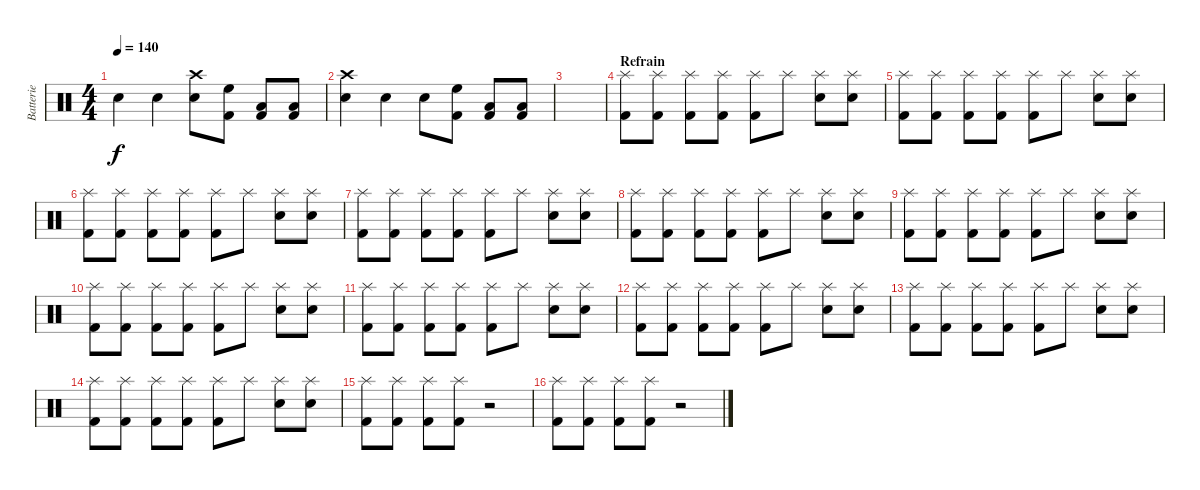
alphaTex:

\track ("Batterie" "Batterie") {instrument percussion}
\staff {score}
\articulation defaults
\ts (4 4)
\tempo 140
\clef neutral
\ks c "Snare (hit) 2".4{dy f} "Snare (hit) 2".4
("Snare (hit) 2" "Crash high (hit)").8 ("High Floor Tom (hit)" "Kick (hit) 2").8 ("Low Floor Tom (hit)" "Kick (hit) 2").8 ("Low Floor Tom (hit)" "Kick (hit) 2").8 |
("Snare (hit) 2" "Crash high (hit)").4 "Snare (hit) 2".4 "Snare (hit) 2".8 ("High Floor Tom (hit)" "Kick (hit) 2").8 ("Low Floor Tom (hit)" "Kick (hit) 2").8 ("Low Floor Tom (hit)" "Kick (hit) 2").8 |
|
\section ("" "Refrain")
("Splash (hit)" "Kick (hit) 2").8{volume 11} ("Splash (hit)" "Kick (hit) 2").8 ("Splash (hit)" "Kick (hit) 2").8 ("Splash (hit)" "Kick (hit) 2").8 ("Splash (hit)" "Kick (hit) 2").8 "Splash (hit)".8 ("Splash (hit)" "Snare (hit) 2").8 ("Splash (hit)" "Snare (hit) 2").8 |
("Splash (hit)" "Kick (hit) 2").8 ("Splash (hit)" "Kick (hit) 2").8 ("Splash (hit)" "Kick (hit) 2").8 ("Splash (hit)" "Kick (hit) 2").8 ("Splash (hit)" "Kick (hit) 2").8 "Splash (hit)".8 ("Splash (hit)" "Snare (hit) 2").8 ("Splash (hit)" "Snare (hit) 2").8 |
("Splash (hit)" "Kick (hit) 2").8 ("Splash (hit)" "Kick (hit) 2").8 ("Splash (hit)" "Kick (hit) 2").8 ("Splash (hit)" "Kick (hit) 2").8 ("Splash (hit)" "Kick (hit) 2").8 "Splash (hit)".8 ("Splash (hit)" "Snare (hit) 2").8 ("Splash (hit)" "Snare (hit) 2").8 |
("Splash (hit)" "Kick (hit) 2").8 ("Splash (hit)" "Kick (hit) 2").8 ("Splash (hit)" "Kick (hit) 2").8 ("Splash (hit)" "Kick (hit) 2").8 ("Splash (hit)" "Kick (hit) 2").8 "Splash (hit)".8 ("Splash (hit)" "Snare (hit) 2").8 ("Splash (hit)" "Snare (hit) 2").8 |
("Splash (hit)" "Kick (hit) 2").8 ("Splash (hit)" "Kick (hit) 2").8 ("Splash (hit)" "Kick (hit) 2").8 ("Splash (hit)" "Kick (hit) 2").8 ("Splash (hit)" "Kick (hit) 2").8 "Splash (hit)".8 ("Splash (hit)" "Snare (hit) 2").8 ("Splash (hit)" "Snare (hit) 2").8 |
("Splash (hit)" "Kick (hit) 2").8 ("Splash (hit)" "Kick (hit) 2").8 ("Splash (hit)" "Kick (hit) 2").8 ("Splash (hit)" "Kick (hit) 2").8 ("Splash (hit)" "Kick (hit) 2").8 "Splash (hit)".8 ("Splash (hit)" "Snare (hit) 2").8 ("Splash (hit)" "Snare (hit) 2").8 |
("Splash (hit)" "Kick (hit) 2").8 ("Splash (hit)" "Kick (hit) 2").8 ("Splash (hit)" "Kick (hit) 2").8 ("Splash (hit)" "Kick (hit) 2").8 ("Splash (hit)" "Kick (hit) 2").8 "Splash (hit)".8 ("Splash (hit)" "Snare (hit) 2").8 ("Splash (hit)" "Snare (hit) 2").8 |
("Splash (hit)" "Kick (hit) 2").8 ("Splash (hit)" "Kick (hit) 2").8 ("Splash (hit)" "Kick (hit) 2").8 ("Splash (hit)" "Kick (hit) 2").8 ("Splash (hit)" "Kick (hit) 2").8 "Splash (hit)".8 ("Splash (hit)" "Snare (hit) 2").8 ("Splash (hit)" "Snare (hit) 2").8 |
("Splash (hit)" "Kick (hit) 2").8 ("Splash (hit)" "Kick (hit) 2").8 ("Splash (hit)" "Kick (hit) 2").8 ("Splash (hit)" "Kick (hit) 2").8 ("Splash (hit)" "Kick (hit) 2").8 "Splash (hit)".8 ("Splash (hit)" "Snare (hit) 2").8 ("Splash (hit)" "Snare (hit) 2").8 |
("Splash (hit)" "Kick (hit) 2").8 ("Splash (hit)" "Kick (hit) 2").8 ("Splash (hit)" "Kick (hit) 2").8 ("Splash (hit)" "Kick (hit) 2").8 ("Splash (hit)" "Kick (hit) 2").8 "Splash (hit)".8 ("Splash (hit)" "Snare (hit) 2").8 ("Splash (hit)" "Snare (hit) 2").8 |
("Splash (hit)" "Kick (hit) 2").8 ("Splash (hit)" "Kick (hit) 2").8 ("Splash (hit)" "Kick (hit) 2").8 ("Splash (hit)" "Kick (hit) 2").8 ("Splash (hit)" "Kick (hit) 2").8 "Splash (hit)".8 ("Splash (hit)" "Snare (hit) 2").8 ("Splash (hit)" "Snare (hit) 2").8 |
("Splash (hit)" "Kick (hit) 2").8 ("Splash (hit)" "Kick (hit) 2").8 ("Splash (hit)" "Kick (hit) 2").8 ("Splash (hit)" "Kick (hit) 2").8 r.2 |
("Splash (hit)" "Kick (hit) 2").8 ("Splash (hit)" "Kick (hit) 2").8 ("Splash (hit)" "Kick (hit) 2").8 ("Splash (hit)" "Kick (hit) 2").8 r.2
